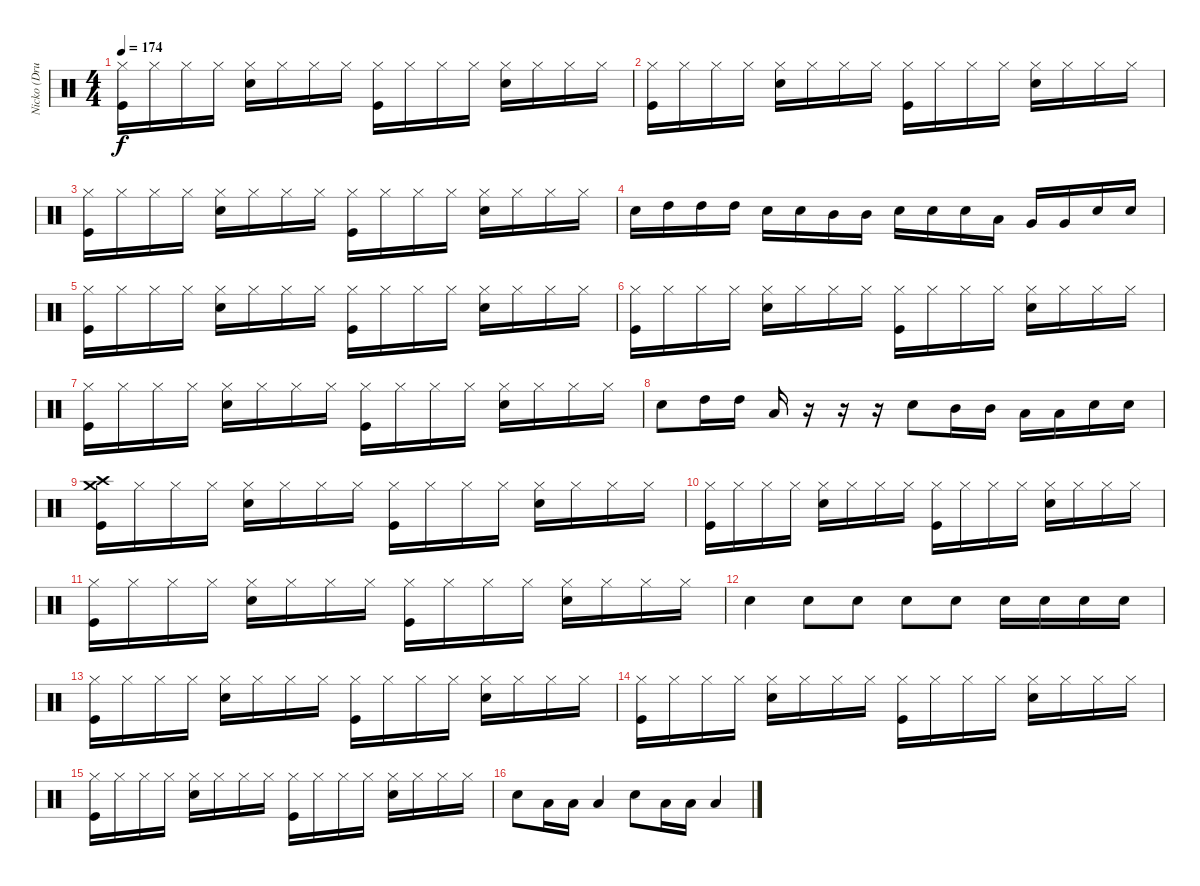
\track ("Nicko (Drums)" "Nicko (Dru") {instrument percussion}
\staff {score}
\articulation defaults
\ts (4 4)
\tempo 174
\clef neutral
\ks c
("Hi-Hat (closed)" "Kick (hit)").16{dy f} "Hi-Hat (closed)".16 "Hi-Hat (closed)".16 "Hi-Hat (closed)".16 ("Hi-Hat (closed)" "Electric Snare (hit)").16 "Hi-Hat (closed)".16 "Hi-Hat (closed)".16 "Hi-Hat (closed)".16 ("Hi-Hat (closed)" "Kick (hit)").16 "Hi-Hat (closed)".16 "Hi-Hat (closed)".16 "Hi-Hat (closed)".16 ("Hi-Hat (closed)" "Electric Snare (hit)").16 "Hi-Hat (closed)".16 "Hi-Hat (closed)".16 "Hi-Hat (closed)".16 |
("Hi-Hat (closed)" "Kick (hit)").16 "Hi-Hat (closed)".16 "Hi-Hat (closed)".16 "Hi-Hat (closed)".16 ("Hi-Hat (closed)" "Electric Snare (hit)").16 "Hi-Hat (closed)".16 "Hi-Hat (closed)".16 "Hi-Hat (closed)".16 ("Hi-Hat (closed)" "Kick (hit)").16 "Hi-Hat (closed)".16 "Hi-Hat (closed)".16 "Hi-Hat (closed)".16 ("Hi-Hat (closed)" "Electric Snare (hit)").16 "Hi-Hat (closed)".16 "Hi-Hat (closed)".16 "Hi-Hat (closed)".16 |
("Hi-Hat (closed)" "Kick (hit)").16 "Hi-Hat (closed)".16 "Hi-Hat (closed)".16 "Hi-Hat (closed)".16 ("Hi-Hat (closed)" "Electric Snare (hit)").16 "Hi-Hat (closed)".16 "Hi-Hat (closed)".16 "Hi-Hat (closed)".16 ("Hi-Hat (closed)" "Kick (hit)").16 "Hi-Hat (closed)".16 "Hi-Hat (closed)".16 "Hi-Hat (closed)".16 ("Hi-Hat (closed)" "Electric Snare (hit)").16 "Hi-Hat (closed)".16 "Hi-Hat (closed)".16 "Hi-Hat (closed)".16 |
"Electric Snare (hit)".16 "High Tom (hit)".16 "High Tom (hit)".16 "High Tom (hit)".16 "Electric Snare (hit)".16 "Electric Snare (hit)".16 "Mid Tom (hit)".16 "Mid Tom (hit)".16 "Electric Snare (hit)".16 "Electric Snare (hit)".16 "Electric Snare (hit)".16 "Low Tom (hit)".16 "Very Low Tom (hit)".16 "Very Low Tom (hit)".16 "Electric Snare (hit)".16 "Electric Snare (hit)".16 |
("Hi-Hat (closed)" "Kick (hit)").16 "Hi-Hat (closed)".16 "Hi-Hat (closed)".16 "Hi-Hat (closed)".16 ("Hi-Hat (closed)" "Electric Snare (hit)").16 "Hi-Hat (closed)".16 "Hi-Hat (closed)".16 "Hi-Hat (closed)".16 ("Hi-Hat (closed)" "Kick (hit)").16 "Hi-Hat (closed)".16 "Hi-Hat (closed)".16 "Hi-Hat (closed)".16 ("Hi-Hat (closed)" "Electric Snare (hit)").16 "Hi-Hat (closed)".16 "Hi-Hat (closed)".16 "Hi-Hat (closed)".16 |
("Hi-Hat (closed)" "Kick (hit)").16 "Hi-Hat (closed)".16 "Hi-Hat (closed)".16 "Hi-Hat (closed)".16 ("Hi-Hat (closed)" "Electric Snare (hit)").16 "Hi-Hat (closed)".16 "Hi-Hat (closed)".16 "Hi-Hat (closed)".16 ("Hi-Hat (closed)" "Kick (hit)").16 "Hi-Hat (closed)".16 "Hi-Hat (closed)".16 "Hi-Hat (closed)".16 ("Hi-Hat (closed)" "Electric Snare (hit)").16 "Hi-Hat (closed)".16 "Hi-Hat (closed)".16 "Hi-Hat (closed)".16 |
("Hi-Hat (closed)" "Kick (hit)").16 "Hi-Hat (closed)".16 "Hi-Hat (closed)".16 "Hi-Hat (closed)".16 ("Hi-Hat (closed)" "Electric Snare (hit)").16 "Hi-Hat (closed)".16 "Hi-Hat (closed)".16 "Hi-Hat (closed)".16 ("Hi-Hat (closed)" "Kick (hit)").16 "Hi-Hat (closed)".16 "Hi-Hat (closed)".16 "Hi-Hat (closed)".16 ("Hi-Hat (closed)" "Electric Snare (hit)").16 "Hi-Hat (closed)".16 "Hi-Hat (closed)".16 "Hi-Hat (closed)".16 |
"Electric Snare (hit)".8 "High Tom (hit)".16 "High Tom (hit)".16 "Low Tom (hit)".16 r.16 r.16 r.16 "Electric Snare (hit)".8 "Mid Tom (hit)".16 "Mid Tom (hit)".16 "Low Tom (hit)".16 "Low Tom (hit)".16 "Electric Snare (hit)".16 "Electric Snare (hit)".16 |
("Crash high (hit)" "Crash medium (hit)" "Kick (hit)").16 "Hi-Hat (closed)".16 "Hi-Hat (closed)".16 "Hi-Hat (closed)".16 ("Hi-Hat (closed)" "Electric Snare (hit)").16 "Hi-Hat (closed)".16 "Hi-Hat (closed)".16 "Hi-Hat (closed)".16 ("Hi-Hat (closed)" "Kick (hit)").16 "Hi-Hat (closed)".16 "Hi-Hat (closed)".16 "Hi-Hat (closed)".16 ("Hi-Hat (closed)" "Electric Snare (hit)").16 "Hi-Hat (closed)".16 "Hi-Hat (closed)".16 "Hi-Hat (closed)".16 |
("Hi-Hat (closed)" "Kick (hit)").16 "Hi-Hat (closed)".16 "Hi-Hat (closed)".16 "Hi-Hat (closed)".16 ("Hi-Hat (closed)" "Electric Snare (hit)").16 "Hi-Hat (closed)".16 "Hi-Hat (closed)".16 "Hi-Hat (closed)".16 ("Hi-Hat (closed)" "Kick (hit)").16 "Hi-Hat (closed)".16 "Hi-Hat (closed)".16 "Hi-Hat (closed)".16 ("Hi-Hat (closed)" "Electric Snare (hit)").16 "Hi-Hat (closed)".16 "Hi-Hat (closed)".16 "Hi-Hat (closed)".16 |
("Hi-Hat (closed)" "Kick (hit)").16 "Hi-Hat (closed)".16 "Hi-Hat (closed)".16 "Hi-Hat (closed)".16 ("Hi-Hat (closed)" "Electric Snare (hit)").16 "Hi-Hat (closed)".16 "Hi-Hat (closed)".16 "Hi-Hat (closed)".16 ("Hi-Hat (closed)" "Kick (hit)").16 "Hi-Hat (closed)".16 "Hi-Hat (closed)".16 "Hi-Hat (closed)".16 ("Hi-Hat (closed)" "Electric Snare (hit)").16 "Hi-Hat (closed)".16 "Hi-Hat (closed)".16 "Hi-Hat (closed)".16 |
"Snare (hit) 2".4 "Snare (hit) 2".8 "Snare (hit) 2".8 "Snare (hit) 2".8 "Snare (hit) 2".8 "Snare (hit) 2".16 "Snare (hit) 2".16 "Snare (hit) 2".16 "Snare (hit) 2".16 |
("Hi-Hat (closed)" "Kick (hit)").16 "Hi-Hat (closed)".16 "Hi-Hat (closed)".16 "Hi-Hat (closed)".16 ("Hi-Hat (closed)" "Electric Snare (hit)").16 "Hi-Hat (closed)".16 "Hi-Hat (closed)".16 "Hi-Hat (closed)".16 ("Hi-Hat (closed)" "Kick (hit)").16 "Hi-Hat (closed)".16 "Hi-Hat (closed)".16 "Hi-Hat (closed)".16 ("Hi-Hat (closed)" "Electric Snare (hit)").16 "Hi-Hat (closed)".16 "Hi-Hat (closed)".16 "Hi-Hat (closed)".16 |
("Hi-Hat (closed)" "Kick (hit)").16 "Hi-Hat (closed)".16 "Hi-Hat (closed)".16 "Hi-Hat (closed)".16 ("Hi-Hat (closed)" "Electric Snare (hit)").16 "Hi-Hat (closed)".16 "Hi-Hat (closed)".16 "Hi-Hat (closed)".16 ("Hi-Hat (closed)" "Kick (hit)").16 "Hi-Hat (closed)".16 "Hi-Hat (closed)".16 "Hi-Hat (closed)".16 ("Hi-Hat (closed)" "Electric Snare (hit)").16 "Hi-Hat (closed)".16 "Hi-Hat (closed)".16 "Hi-Hat (closed)".16 |
("Hi-Hat (closed)" "Kick (hit)").16 "Hi-Hat (closed)".16 "Hi-Hat (closed)".16 "Hi-Hat (closed)".16 ("Hi-Hat (closed)" "Electric Snare (hit)").16 "Hi-Hat (closed)".16 "Hi-Hat (closed)".16 "Hi-Hat (closed)".16 ("Hi-Hat (closed)" "Kick (hit)").16 "Hi-Hat (closed)".16 "Hi-Hat (closed)".16 "Hi-Hat (closed)".16 ("Hi-Hat (closed)" "Electric Snare (hit)").16 "Hi-Hat (closed)".16 "Hi-Hat (closed)".16 "Hi-Hat (closed)".16 |
"Snare (hit) 2".8 "Low Tom (hit)".16 "Low Tom (hit)".16 "Low Tom (hit)".4 "Snare (hit) 2".8 "Low Tom (hit)".16 "Low Tom (hit)".16 "Low Tom (hit)".4
